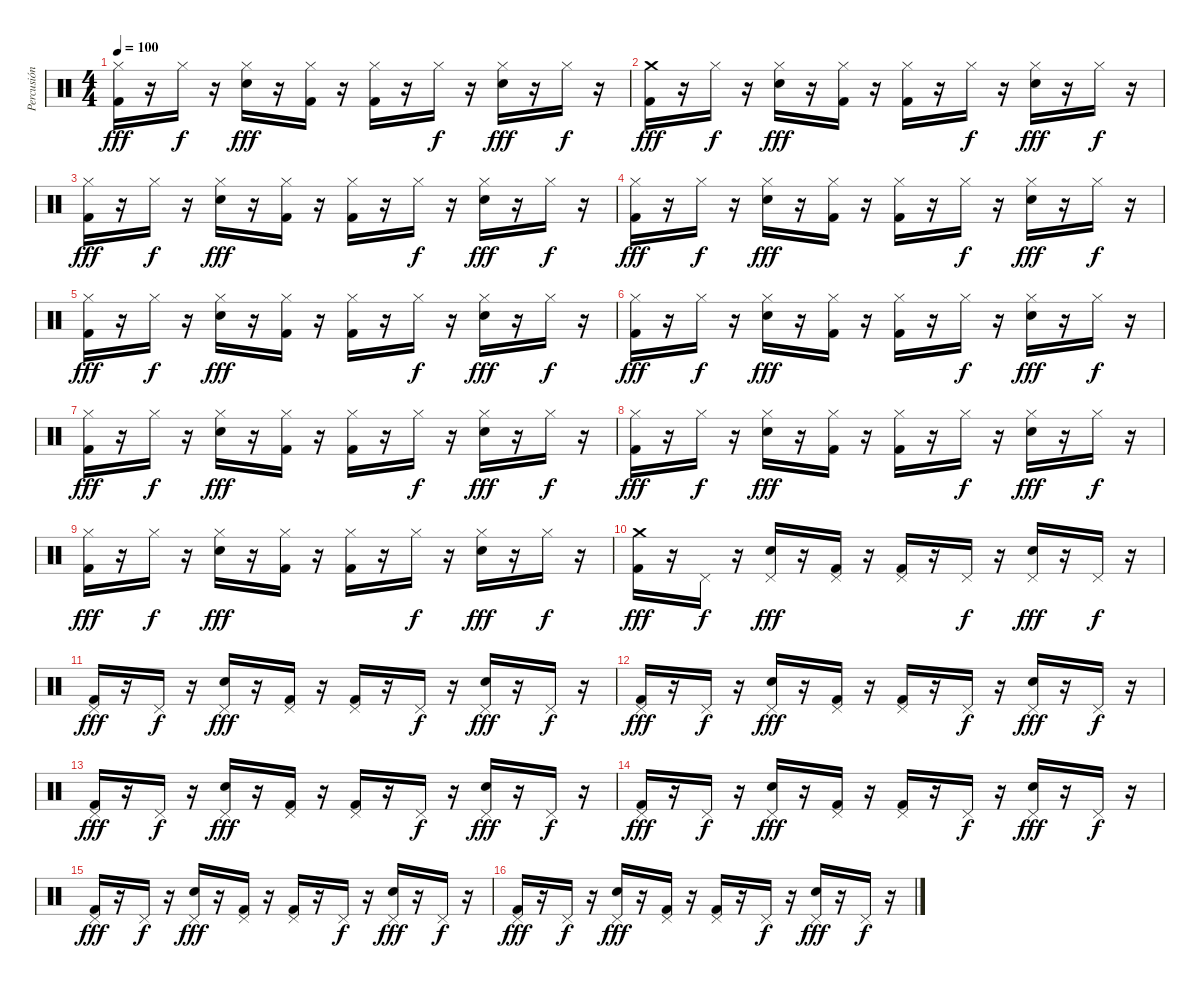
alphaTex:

\track ("Percusión" "Percusión") {instrument percussion}
\staff {score}
\articulation defaults
\ts (4 4)
\tempo 100
\clef neutral
\ks c
("Hi-Hat (closed)" "Kick (hit) 2").16{dy fff} r.16 "Hi-Hat (closed)".16{dy f} r.16 ("Hi-Hat (closed)" "Electric Snare (hit)").16{dy fff} r.16 ("Hi-Hat (closed)" "Kick (hit) 2").16 r.16 ("Hi-Hat (closed)" "Kick (hit) 2").16 r.16 "Hi-Hat (closed)".16{dy f} r.16 ("Hi-Hat (closed)" "Electric Snare (hit)").16{dy fff} r.16 "Hi-Hat (closed)".16{dy f} r.16 |
("Crash medium (hit)" "Kick (hit) 2").16{dy fff} r.16 "Hi-Hat (closed)".16{dy f} r.16 ("Hi-Hat (closed)" "Electric Snare (hit)").16{dy fff} r.16 ("Hi-Hat (closed)" "Kick (hit) 2").16 r.16 ("Hi-Hat (closed)" "Kick (hit) 2").16 r.16 "Hi-Hat (closed)".16{dy f} r.16 ("Hi-Hat (closed)" "Electric Snare (hit)").16{dy fff} r.16 "Hi-Hat (closed)".16{dy f} r.16 |
("Hi-Hat (closed)" "Kick (hit) 2").16{dy fff} r.16 "Hi-Hat (closed)".16{dy f} r.16 ("Hi-Hat (closed)" "Electric Snare (hit)").16{dy fff} r.16 ("Hi-Hat (closed)" "Kick (hit) 2").16 r.16 ("Hi-Hat (closed)" "Kick (hit) 2").16 r.16 "Hi-Hat (closed)".16{dy f} r.16 ("Hi-Hat (closed)" "Electric Snare (hit)").16{dy fff} r.16 "Hi-Hat (closed)".16{dy f} r.16 |
("Hi-Hat (closed)" "Kick (hit) 2").16{dy fff} r.16 "Hi-Hat (closed)".16{dy f} r.16 ("Hi-Hat (closed)" "Electric Snare (hit)").16{dy fff} r.16 ("Hi-Hat (closed)" "Kick (hit) 2").16 r.16 ("Hi-Hat (closed)" "Kick (hit) 2").16 r.16 "Hi-Hat (closed)".16{dy f} r.16 ("Hi-Hat (closed)" "Electric Snare (hit)").16{dy fff} r.16 "Hi-Hat (closed)".16{dy f} r.16 |
("Hi-Hat (closed)" "Kick (hit) 2").16{dy fff} r.16 "Hi-Hat (closed)".16{dy f} r.16 ("Hi-Hat (closed)" "Electric Snare (hit)").16{dy fff} r.16 ("Hi-Hat (closed)" "Kick (hit) 2").16 r.16 ("Hi-Hat (closed)" "Kick (hit) 2").16 r.16 "Hi-Hat (closed)".16{dy f} r.16 ("Hi-Hat (closed)" "Electric Snare (hit)").16{dy fff} r.16 "Hi-Hat (closed)".16{dy f} r.16 |
("Hi-Hat (closed)" "Kick (hit) 2").16{dy fff} r.16 "Hi-Hat (closed)".16{dy f} r.16 ("Hi-Hat (closed)" "Electric Snare (hit)").16{dy fff} r.16 ("Hi-Hat (closed)" "Kick (hit) 2").16 r.16 ("Hi-Hat (closed)" "Kick (hit) 2").16 r.16 "Hi-Hat (closed)".16{dy f} r.16 ("Hi-Hat (closed)" "Electric Snare (hit)").16{dy fff} r.16 "Hi-Hat (closed)".16{dy f} r.16 |
("Hi-Hat (closed)" "Kick (hit) 2").16{dy fff} r.16 "Hi-Hat (closed)".16{dy f} r.16 ("Hi-Hat (closed)" "Electric Snare (hit)").16{dy fff} r.16 ("Hi-Hat (closed)" "Kick (hit) 2").16 r.16 ("Hi-Hat (closed)" "Kick (hit) 2").16 r.16 "Hi-Hat (closed)".16{dy f} r.16 ("Hi-Hat (closed)" "Electric Snare (hit)").16{dy fff} r.16 "Hi-Hat (closed)".16{dy f} r.16 |
("Hi-Hat (closed)" "Kick (hit) 2").16{dy fff} r.16 "Hi-Hat (closed)".16{dy f} r.16 ("Hi-Hat (closed)" "Electric Snare (hit)").16{dy fff} r.16 ("Hi-Hat (closed)" "Kick (hit) 2").16 r.16 ("Hi-Hat (closed)" "Kick (hit) 2").16 r.16 "Hi-Hat (closed)".16{dy f} r.16 ("Hi-Hat (closed)" "Electric Snare (hit)").16{dy fff} r.16 "Hi-Hat (closed)".16{dy f} r.16 |
("Hi-Hat (closed)" "Kick (hit) 2").16{dy fff} r.16 "Hi-Hat (closed)".16{dy f} r.16 ("Hi-Hat (closed)" "Electric Snare (hit)").16{dy fff} r.16 ("Hi-Hat (closed)" "Kick (hit) 2").16 r.16 ("Hi-Hat (closed)" "Kick (hit) 2").16 r.16 "Hi-Hat (closed)".16{dy f} r.16 ("Hi-Hat (closed)" "Electric Snare (hit)").16{dy fff} r.16 "Hi-Hat (closed)".16{dy f} r.16 |
("Crash medium (hit)" "Kick (hit) 2").16{dy fff} r.16 "Pedal Hi-Hat (hit)".16{dy f} r.16 ("Pedal Hi-Hat (hit)" "Electric Snare (hit)").16{dy fff} r.16 ("Pedal Hi-Hat (hit)" "Kick (hit) 2").16 r.16 ("Pedal Hi-Hat (hit)" "Kick (hit) 2").16 r.16 "Pedal Hi-Hat (hit)".16{dy f} r.16 ("Pedal Hi-Hat (hit)" "Electric Snare (hit)").16{dy fff} r.16 "Pedal Hi-Hat (hit)".16{dy f} r.16 |
("Pedal Hi-Hat (hit)" "Kick (hit) 2").16{dy fff} r.16 "Pedal Hi-Hat (hit)".16{dy f} r.16 ("Pedal Hi-Hat (hit)" "Electric Snare (hit)").16{dy fff} r.16 ("Pedal Hi-Hat (hit)" "Kick (hit) 2").16 r.16 ("Pedal Hi-Hat (hit)" "Kick (hit) 2").16 r.16 "Pedal Hi-Hat (hit)".16{dy f} r.16 ("Pedal Hi-Hat (hit)" "Electric Snare (hit)").16{dy fff} r.16 "Pedal Hi-Hat (hit)".16{dy f} r.16 |
("Pedal Hi-Hat (hit)" "Kick (hit) 2").16{dy fff} r.16 "Pedal Hi-Hat (hit)".16{dy f} r.16 ("Pedal Hi-Hat (hit)" "Electric Snare (hit)").16{dy fff} r.16 ("Pedal Hi-Hat (hit)" "Kick (hit) 2").16 r.16 ("Pedal Hi-Hat (hit)" "Kick (hit) 2").16 r.16 "Pedal Hi-Hat (hit)".16{dy f} r.16 ("Pedal Hi-Hat (hit)" "Electric Snare (hit)").16{dy fff} r.16 "Pedal Hi-Hat (hit)".16{dy f} r.16 |
("Pedal Hi-Hat (hit)" "Kick (hit) 2").16{dy fff} r.16 "Pedal Hi-Hat (hit)".16{dy f} r.16 ("Pedal Hi-Hat (hit)" "Electric Snare (hit)").16{dy fff} r.16 ("Pedal Hi-Hat (hit)" "Kick (hit) 2").16 r.16 ("Pedal Hi-Hat (hit)" "Kick (hit) 2").16 r.16 "Pedal Hi-Hat (hit)".16{dy f} r.16 ("Pedal Hi-Hat (hit)" "Electric Snare (hit)").16{dy fff} r.16 "Pedal Hi-Hat (hit)".16{dy f} r.16 |
("Pedal Hi-Hat (hit)" "Kick (hit) 2").16{dy fff} r.16 "Pedal Hi-Hat (hit)".16{dy f} r.16 ("Pedal Hi-Hat (hit)" "Electric Snare (hit)").16{dy fff} r.16 ("Pedal Hi-Hat (hit)" "Kick (hit) 2").16 r.16 ("Pedal Hi-Hat (hit)" "Kick (hit) 2").16 r.16 "Pedal Hi-Hat (hit)".16{dy f} r.16 ("Pedal Hi-Hat (hit)" "Electric Snare (hit)").16{dy fff} r.16 "Pedal Hi-Hat (hit)".16{dy f} r.16 |
("Pedal Hi-Hat (hit)" "Kick (hit) 2").16{dy fff} r.16 "Pedal Hi-Hat (hit)".16{dy f} r.16 ("Pedal Hi-Hat (hit)" "Electric Snare (hit)").16{dy fff} r.16 ("Pedal Hi-Hat (hit)" "Kick (hit) 2").16 r.16 ("Pedal Hi-Hat (hit)" "Kick (hit) 2").16 r.16 "Pedal Hi-Hat (hit)".16{dy f} r.16 ("Pedal Hi-Hat (hit)" "Electric Snare (hit)").16{dy fff} r.16 "Pedal Hi-Hat (hit)".16{dy f} r.16 |
("Pedal Hi-Hat (hit)" "Kick (hit) 2").16{dy fff} r.16 "Pedal Hi-Hat (hit)".16{dy f} r.16 ("Pedal Hi-Hat (hit)" "Electric Snare (hit)").16{dy fff} r.16 ("Pedal Hi-Hat (hit)" "Kick (hit) 2").16 r.16 ("Pedal Hi-Hat (hit)" "Kick (hit) 2").16 r.16 "Pedal Hi-Hat (hit)".16{dy f} r.16 ("Pedal Hi-Hat (hit)" "Electric Snare (hit)").16{dy fff} r.16 "Pedal Hi-Hat (hit)".16{dy f} r.16
